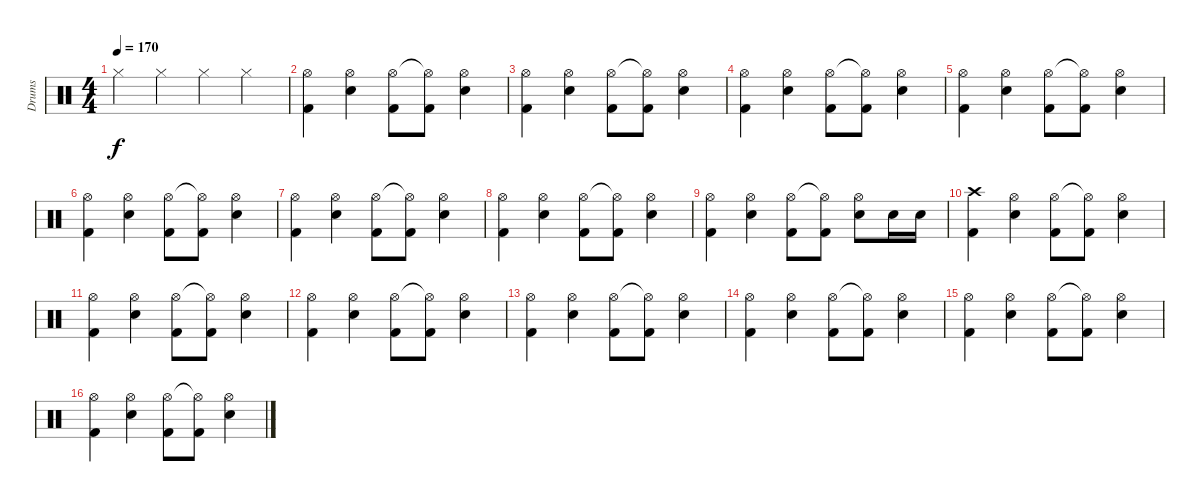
\track ("Drums" "Drums") {instrument percussion}
\staff {score}
\articulation defaults
\ts (4 4)
\tempo 170
\clef neutral
\ks c "Hi-Hat (closed)".4{dy f} "Hi-Hat (closed)".4 "Hi-Hat (closed)".4 "Hi-Hat (closed)".4
|
("Hi-Hat (open)" "Kick (hit) 2").4 ("Hi-Hat (open)" "Snare (hit) 2").4 ("Hi-Hat (open)" "Kick (hit) 2").8 ("Hi-Hat (open)"{t} "Kick (hit) 2").8 ("Hi-Hat (open)" "Snare (hit) 2").4 |
("Hi-Hat (open)" "Kick (hit) 2").4 ("Hi-Hat (open)" "Snare (hit) 2").4 ("Hi-Hat (open)" "Kick (hit) 2").8 ("Hi-Hat (open)"{t} "Kick (hit) 2").8 ("Hi-Hat (open)" "Snare (hit) 2").4 |
("Hi-Hat (open)" "Kick (hit) 2").4 ("Hi-Hat (open)" "Snare (hit) 2").4 ("Hi-Hat (open)" "Kick (hit) 2").8 ("Hi-Hat (open)"{t} "Kick (hit) 2").8 ("Hi-Hat (open)" "Snare (hit) 2").4 |
("Hi-Hat (open)" "Kick (hit) 2").4 ("Hi-Hat (open)" "Snare (hit) 2").4 ("Hi-Hat (open)" "Kick (hit) 2").8 ("Hi-Hat (open)"{t} "Kick (hit) 2").8 ("Hi-Hat (open)" "Snare (hit) 2").4 |
("Hi-Hat (open)" "Kick (hit) 2").4 ("Hi-Hat (open)" "Snare (hit) 2").4 ("Hi-Hat (open)" "Kick (hit) 2").8 ("Hi-Hat (open)"{t} "Kick (hit) 2").8 ("Hi-Hat (open)" "Snare (hit) 2").4 |
("Hi-Hat (open)" "Kick (hit) 2").4 ("Hi-Hat (open)" "Snare (hit) 2").4 ("Hi-Hat (open)" "Kick (hit) 2").8 ("Hi-Hat (open)"{t} "Kick (hit) 2").8 ("Hi-Hat (open)" "Snare (hit) 2").4 |
("Hi-Hat (open)" "Kick (hit) 2").4 ("Hi-Hat (open)" "Snare (hit) 2").4 ("Hi-Hat (open)" "Kick (hit) 2").8 ("Hi-Hat (open)"{t} "Kick (hit) 2").8 ("Hi-Hat (open)" "Snare (hit) 2").4 |
("Hi-Hat (open)" "Kick (hit) 2").4 ("Hi-Hat (open)" "Snare (hit) 2").4 ("Hi-Hat (open)" "Kick (hit) 2").8 ("Hi-Hat (open)"{t} "Kick (hit) 2").8 ("Hi-Hat (open)" "Snare (hit) 2").8 "Snare (hit) 2".16 "Snare (hit) 2".16 |
("Crash high (hit)" "Kick (hit) 2").4 ("Hi-Hat (open)" "Snare (hit) 2").4 ("Hi-Hat (open)" "Kick (hit) 2").8 ("Hi-Hat (open)"{t} "Kick (hit) 2").8 ("Hi-Hat (open)" "Snare (hit) 2").4 |
("Hi-Hat (open)" "Kick (hit) 2").4 ("Hi-Hat (open)" "Snare (hit) 2").4 ("Hi-Hat (open)" "Kick (hit) 2").8 ("Hi-Hat (open)"{t} "Kick (hit) 2").8 ("Hi-Hat (open)" "Snare (hit) 2").4 |
("Hi-Hat (open)" "Kick (hit) 2").4 ("Hi-Hat (open)" "Snare (hit) 2").4 ("Hi-Hat (open)" "Kick (hit) 2").8 ("Hi-Hat (open)"{t} "Kick (hit) 2").8 ("Hi-Hat (open)" "Snare (hit) 2").4 |
("Hi-Hat (open)" "Kick (hit) 2").4 ("Hi-Hat (open)" "Snare (hit) 2").4 ("Hi-Hat (open)" "Kick (hit) 2").8 ("Hi-Hat (open)"{t} "Kick (hit) 2").8 ("Hi-Hat (open)" "Snare (hit) 2").4 |
("Hi-Hat (open)" "Kick (hit) 2").4 ("Hi-Hat (open)" "Snare (hit) 2").4 ("Hi-Hat (open)" "Kick (hit) 2").8 ("Hi-Hat (open)"{t} "Kick (hit) 2").8 ("Hi-Hat (open)" "Snare (hit) 2").4 |
("Hi-Hat (open)" "Kick (hit) 2").4 ("Hi-Hat (open)" "Snare (hit) 2").4 ("Hi-Hat (open)" "Kick (hit) 2").8 ("Hi-Hat (open)"{t} "Kick (hit) 2").8 ("Hi-Hat (open)" "Snare (hit) 2").4 |
("Hi-Hat (open)" "Kick (hit) 2").4 ("Hi-Hat (open)" "Snare (hit) 2").4 ("Hi-Hat (open)" "Kick (hit) 2").8 ("Hi-Hat (open)"{t} "Kick (hit) 2").8 ("Hi-Hat (open)" "Snare (hit) 2").4
